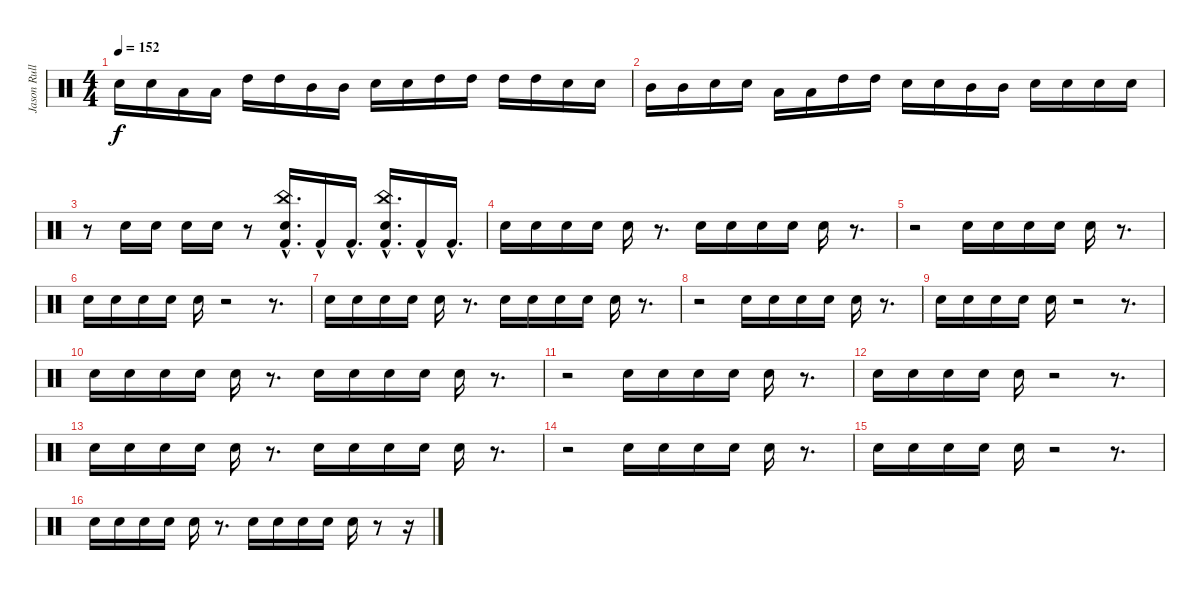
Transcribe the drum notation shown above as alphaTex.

\track ("Jason Rullo" "Jason Rull") {instrument percussion}
\staff {score}
\articulation defaults
\ts (4 4)
\tempo 152
\clef neutral
\ks c "Electric Snare (hit)".16{dy f} "Electric Snare (hit)".16 "Low Tom (hit)".16 "Low Tom (hit)".16 "High Tom (hit)".16 "High Tom (hit)".16 "Mid Tom (hit)".16 "Mid Tom (hit)".16 "Electric Snare (hit)".16 "Electric Snare (hit)".16 "High Tom (hit)".16 "High Tom (hit)".16 "High Tom (hit)".16 "High Tom (hit)".16 "Electric Snare (hit)".16 "Electric Snare (hit)".16
|
"Mid Tom (hit)".16 "Mid Tom (hit)".16 "Electric Snare (hit)".16 "Electric Snare (hit)".16 "Low Tom (hit)".16 "Low Tom (hit)".16 "High Tom (hit)".16 "High Tom (hit)".16 "Electric Snare (hit)".16 "Electric Snare (hit)".16 "Mid Tom (hit)".16 "Mid Tom (hit)".16 "Electric Snare (hit)".16 "Electric Snare (hit)".16 "Electric Snare (hit)".16 "Electric Snare (hit)".16 |
r.8 "Electric Snare (hit)".16 "Electric Snare (hit)".16 "Electric Snare (hit)".16 "Electric Snare (hit)".16 r.8 ("China (hit)" "Electric Snare (hit)" "Kick (hit) 2"{hac}).16{d} "Kick (hit) 2"{hac}.16 "Kick (hit) 2"{hac}.16{d} ("China (hit)" "Electric Snare (hit)" "Kick (hit) 2"{hac}).16{d} "Kick (hit) 2"{hac}.16 "Kick (hit) 2"{hac}.16{d} |
"Electric Snare (hit)".16 "Electric Snare (hit)".16 "Electric Snare (hit)".16 "Electric Snare (hit)".16 "Electric Snare (hit)".16 r.8{d} "Electric Snare (hit)".16 "Electric Snare (hit)".16 "Electric Snare (hit)".16 "Electric Snare (hit)".16 "Electric Snare (hit)".16 r.8{d} |
r.2 "Electric Snare (hit)".16 "Electric Snare (hit)".16 "Electric Snare (hit)".16 "Electric Snare (hit)".16 "Electric Snare (hit)".16 r.8{d} |
"Electric Snare (hit)".16 "Electric Snare (hit)".16 "Electric Snare (hit)".16 "Electric Snare (hit)".16 "Electric Snare (hit)".16 r.2 r.8{d} |
"Electric Snare (hit)".16 "Electric Snare (hit)".16 "Electric Snare (hit)".16 "Electric Snare (hit)".16 "Electric Snare (hit)".16 r.8{d} "Electric Snare (hit)".16 "Electric Snare (hit)".16 "Electric Snare (hit)".16 "Electric Snare (hit)".16 "Electric Snare (hit)".16 r.8{d} |
r.2 "Electric Snare (hit)".16 "Electric Snare (hit)".16 "Electric Snare (hit)".16 "Electric Snare (hit)".16 "Electric Snare (hit)".16 r.8{d} |
"Electric Snare (hit)".16 "Electric Snare (hit)".16 "Electric Snare (hit)".16 "Electric Snare (hit)".16 "Electric Snare (hit)".16 r.2 r.8{d} |
"Electric Snare (hit)".16 "Electric Snare (hit)".16 "Electric Snare (hit)".16 "Electric Snare (hit)".16 "Electric Snare (hit)".16 r.8{d} "Electric Snare (hit)".16 "Electric Snare (hit)".16 "Electric Snare (hit)".16 "Electric Snare (hit)".16 "Electric Snare (hit)".16 r.8{d} |
r.2 "Electric Snare (hit)".16 "Electric Snare (hit)".16 "Electric Snare (hit)".16 "Electric Snare (hit)".16 "Electric Snare (hit)".16 r.8{d} |
"Electric Snare (hit)".16 "Electric Snare (hit)".16 "Electric Snare (hit)".16 "Electric Snare (hit)".16 "Electric Snare (hit)".16 r.2 r.8{d} |
"Electric Snare (hit)".16{volume 16} "Electric Snare (hit)".16{volume 16} "Electric Snare (hit)".16{volume 16} "Electric Snare (hit)".16{volume 15} "Electric Snare (hit)".16{volume 15} r.8{d} "Electric Snare (hit)".16{volume 14} "Electric Snare (hit)".16{volume 14} "Electric Snare (hit)".16{volume 14} "Electric Snare (hit)".16{volume 14} "Electric Snare (hit)".16{volume 13} r.8{d} |
r.2 "Electric Snare (hit)".16{volume 11} "Electric Snare (hit)".16{volume 10} "Electric Snare (hit)".16{volume 10} "Electric Snare (hit)".16{volume 10} "Electric Snare (hit)".16{volume 10} r.8{d} |
"Electric Snare (hit)".16{volume 9} "Electric Snare (hit)".16{volume 9} "Electric Snare (hit)".16{volume 8} "Electric Snare (hit)".16{volume 8} "Electric Snare (hit)".16{volume 8} r.2 r.8{d} |
"Electric Snare (hit)".16{volume 5} "Electric Snare (hit)".16{volume 5} "Electric Snare (hit)".16{volume 5} "Electric Snare (hit)".16{volume 5} "Electric Snare (hit)".16{volume 4} r.8{d} "Electric Snare (hit)".16{volume 4} "Electric Snare (hit)".16{volume 3} "Electric Snare (hit)".16{volume 3} "Electric Snare (hit)".16{volume 3} "Electric Snare (hit)".16{volume 3} r.8 r.16
